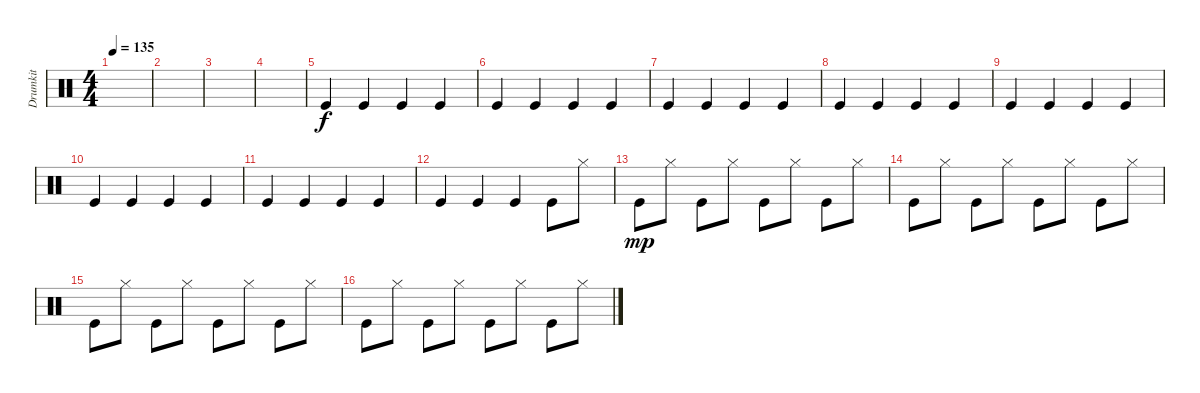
\track ("Drumkit" "Drumkit") {instrument percussion}
\staff {score}
\articulation defaults
\ts (4 4)
\tempo 135
\clef neutral
\ks c
|
|
|
|
"Kick (hit)".4 "Kick (hit)".4 "Kick (hit)".4 "Kick (hit)".4 |
"Kick (hit)".4 "Kick (hit)".4 "Kick (hit)".4 "Kick (hit)".4 |
"Kick (hit)".4 "Kick (hit)".4 "Kick (hit)".4 "Kick (hit)".4 |
"Kick (hit)".4 "Kick (hit)".4 "Kick (hit)".4 "Kick (hit)".4 |
"Kick (hit)".4 "Kick (hit)".4 "Kick (hit)".4 "Kick (hit)".4 |
"Kick (hit)".4 "Kick (hit)".4 "Kick (hit)".4 "Kick (hit)".4 |
"Kick (hit)".4 "Kick (hit)".4 "Kick (hit)".4 "Kick (hit)".4 |
"Kick (hit)".4 "Kick (hit)".4 "Kick (hit)".4 "Kick (hit)".8 "Hi-Hat (closed)".8 |
"Kick (hit)".8{dy mp} "Hi-Hat (closed)".8 "Kick (hit)".8 "Hi-Hat (closed)".8 "Kick (hit)".8 "Hi-Hat (closed)".8 "Kick (hit)".8 "Hi-Hat (closed)".8 |
"Kick (hit)".8 "Hi-Hat (closed)".8 "Kick (hit)".8 "Hi-Hat (closed)".8 "Kick (hit)".8 "Hi-Hat (closed)".8 "Kick (hit)".8 "Hi-Hat (closed)".8 |
"Kick (hit)".8 "Hi-Hat (closed)".8 "Kick (hit)".8 "Hi-Hat (closed)".8 "Kick (hit)".8 "Hi-Hat (closed)".8 "Kick (hit)".8 "Hi-Hat (closed)".8 |
"Kick (hit)".8 "Hi-Hat (closed)".8 "Kick (hit)".8 "Hi-Hat (closed)".8 "Kick (hit)".8 "Hi-Hat (closed)".8 "Kick (hit)".8 "Hi-Hat (closed)".8
